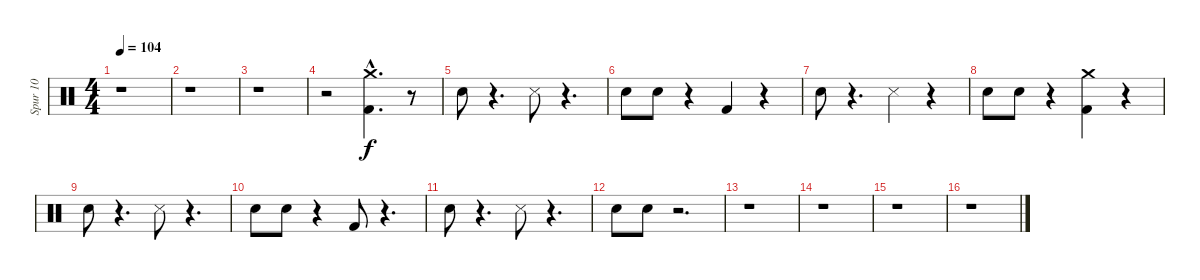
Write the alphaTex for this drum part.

\track ("Spur 10" "Spur 10") {instrument percussion}
\staff {score}
\articulation defaults
\ts (4 4)
\tempo 104
\clef neutral
\ks c
r.1{dy f} |
r.1 |
r.1 |
r.2 ("Crash medium (hit)" "Kick (hit) 2"{hac}).4{d} r.8 |
"Snare (hit) 2".8 r.4{d} "Snare (side stick) 3".8 r.4{d} |
"Snare (hit) 2".8 "Snare (hit) 2".8 r.4 "Kick (hit) 2".4 r.4 |
"Snare (hit) 2".8 r.4{d} "Snare (side stick) 3".4 r.4 |
"Snare (hit) 2".8 "Snare (hit) 2".8 r.4 ("Crash medium (hit)" "Kick (hit) 2").4 r.4 |
"Snare (hit) 2".8 r.4{d} "Snare (side stick) 3".8 r.4{d} |
"Snare (hit) 2".8 "Snare (hit) 2".8 r.4 "Kick (hit) 2".8 r.4{d} |
"Snare (hit) 2".8 r.4{d} "Snare (side stick) 3".8 r.4{d} |
"Snare (hit) 2".8 "Snare (hit) 2".8 r.2{d} |
r.1 |
r.1 |
r.1 |
r.1
